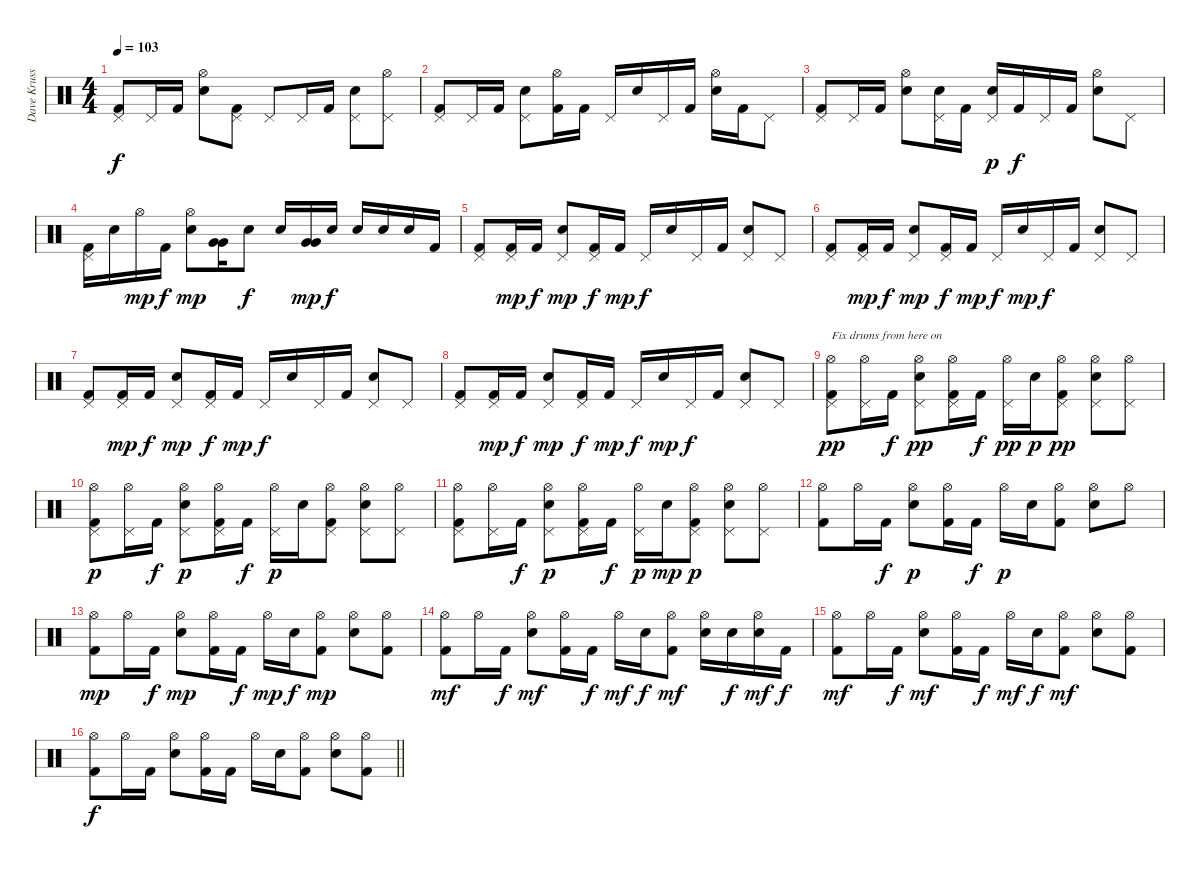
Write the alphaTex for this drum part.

\track ("Dave Krussen" "Dave Kruss") {instrument percussion}
\staff {score}
\articulation defaults
\ts (4 4)
\tempo 103
\clef neutral
\ks c
("Pedal Hi-Hat (hit)" "Kick (hit) 2").8{dy f} "Pedal Hi-Hat (hit)".16 "Kick (hit) 2".16 ("Hi-Hat (open)" "Electric Snare (hit)").8 ("Pedal Hi-Hat (hit)" "Kick (hit) 2").8 "Pedal Hi-Hat (hit)".8 "Pedal Hi-Hat (hit)".16 "Kick (hit) 2".16 ("Pedal Hi-Hat (hit)" "Electric Snare (hit)").8 ("Pedal Hi-Hat (hit)" "Hi-Hat (open)").8 |
("Pedal Hi-Hat (hit)" "Kick (hit) 2").8 "Pedal Hi-Hat (hit)".16 "Kick (hit) 2".16 ("Pedal Hi-Hat (hit)" "Electric Snare (hit)").8 ("Hi-Hat (open)" "Kick (hit) 2").16 "Kick (hit) 2".16 "Pedal Hi-Hat (hit)".16 "Electric Snare (hit)".16 "Pedal Hi-Hat (hit)".16 "Kick (hit) 2".16 ("Hi-Hat (open)" "Electric Snare (hit)").16 "Kick (hit) 2".16 "Pedal Hi-Hat (hit)".8 |
("Pedal Hi-Hat (hit)" "Kick (hit) 2").8 "Pedal Hi-Hat (hit)".16 "Kick (hit) 2".16 ("Hi-Hat (open)" "Electric Snare (hit)").8 ("Pedal Hi-Hat (hit)" "Electric Snare (hit)").16 "Kick (hit) 2".16 ("Pedal Hi-Hat (hit)" "Snare (hit) 2").16{dy p} "Kick (hit) 2".16{dy f} "Pedal Hi-Hat (hit)".16 "Kick (hit) 2".16 ("Hi-Hat (open)" "Electric Snare (hit)").8 "Pedal Hi-Hat (hit)".8 |
("Pedal Hi-Hat (hit)" "Kick (hit) 2").16 "Electric Snare (hit)".16 "Hi-Hat (open)".16{dy mp} "Kick (hit) 2".16{dy f} ("Hi-Hat (open)" "Electric Snare (hit)").8{dy mp} ("Very Low Tom (hit)" "Very Low Tom (hit)").16 "Electric Snare (hit)".8{dy f} "Electric Snare (hit)".16 ("Very Low Tom (hit)" "Very Low Tom (hit)").16{dy mp} "Electric Snare (hit)".16{dy f} "Electric Snare (hit)".16 "Electric Snare (hit)".16 "Electric Snare (hit)".16 "Kick (hit) 2".16 |
("Pedal Hi-Hat (hit)" "Kick (hit) 2").8 ("Pedal Hi-Hat (hit)" "Kick (hit) 2").16{dy mp} "Kick (hit) 2".16{dy f} ("Pedal Hi-Hat (hit)" "Electric Snare (hit)").8{dy mp} ("Pedal Hi-Hat (hit)" "Kick (hit) 2").16{dy f} "Kick (hit) 2".16{dy mp} "Pedal Hi-Hat (hit)".16{dy f} "Electric Snare (hit)".16 "Pedal Hi-Hat (hit)".16 "Kick (hit) 2".16 ("Pedal Hi-Hat (hit)" "Electric Snare (hit)").8 "Pedal Hi-Hat (hit)".8 |
("Pedal Hi-Hat (hit)" "Kick (hit) 2").8 ("Pedal Hi-Hat (hit)" "Kick (hit) 2").16{dy mp} "Kick (hit) 2".16{dy f} ("Pedal Hi-Hat (hit)" "Electric Snare (hit)").8{dy mp} ("Pedal Hi-Hat (hit)" "Kick (hit) 2").16{dy f} "Kick (hit) 2".16{dy mp} "Pedal Hi-Hat (hit)".16{dy f} "Snare (hit) 2".16{dy mp} "Pedal Hi-Hat (hit)".16{dy f} "Kick (hit) 2".16 ("Pedal Hi-Hat (hit)" "Electric Snare (hit)").8 "Pedal Hi-Hat (hit)".8 |
("Pedal Hi-Hat (hit)" "Kick (hit) 2").8 ("Pedal Hi-Hat (hit)" "Kick (hit) 2").16{dy mp} "Kick (hit) 2".16{dy f} ("Pedal Hi-Hat (hit)" "Electric Snare (hit)").8{dy mp} ("Pedal Hi-Hat (hit)" "Kick (hit) 2").16{dy f} "Kick (hit) 2".16{dy mp} "Pedal Hi-Hat (hit)".16{dy f} "Electric Snare (hit)".16 "Pedal Hi-Hat (hit)".16 "Kick (hit) 2".16 ("Pedal Hi-Hat (hit)" "Electric Snare (hit)").8 "Pedal Hi-Hat (hit)".8 |
("Pedal Hi-Hat (hit)" "Kick (hit) 2").8 ("Pedal Hi-Hat (hit)" "Kick (hit) 2").16{dy mp} "Kick (hit) 2".16{dy f} ("Pedal Hi-Hat (hit)" "Electric Snare (hit)").8{dy mp} ("Pedal Hi-Hat (hit)" "Kick (hit) 2").16{dy f} "Kick (hit) 2".16{dy mp} "Pedal Hi-Hat (hit)".16{dy f} "Snare (hit) 2".16{dy mp} "Pedal Hi-Hat (hit)".16{dy f} "Kick (hit) 2".16 ("Pedal Hi-Hat (hit)" "Electric Snare (hit)").8 "Pedal Hi-Hat (hit)".8 |
("Pedal Hi-Hat (hit)" "Hi-Hat (open)" "Kick (hit) 2").8{txt "Fix drums from here on" dy pp} ("Pedal Hi-Hat (hit)" "Hi-Hat (open)").16 "Kick (hit) 2".16{dy f} ("Pedal Hi-Hat (hit)" "Hi-Hat (open)" "Electric Snare (hit)").8{dy pp} ("Pedal Hi-Hat (hit)" "Hi-Hat (open)" "Kick (hit) 2").16 "Kick (hit) 2".16{dy f} ("Pedal Hi-Hat (hit)" "Hi-Hat (open)").16{dy pp} "Electric Snare (hit)".16{dy p} ("Pedal Hi-Hat (hit)" "Hi-Hat (open)" "Kick (hit) 2").8{dy pp} ("Pedal Hi-Hat (hit)" "Hi-Hat (open)" "Electric Snare (hit)").8 ("Pedal Hi-Hat (hit)" "Hi-Hat (open)").8 |
("Pedal Hi-Hat (hit)" "Hi-Hat (open)" "Kick (hit) 2").8{dy p} ("Pedal Hi-Hat (hit)" "Hi-Hat (open)").16 "Kick (hit) 2".16{dy f} ("Pedal Hi-Hat (hit)" "Hi-Hat (open)" "Electric Snare (hit)").8{dy p} ("Pedal Hi-Hat (hit)" "Hi-Hat (open)" "Kick (hit) 2").16 "Kick (hit) 2".16{dy f} ("Pedal Hi-Hat (hit)" "Hi-Hat (open)").16{dy p} "Electric Snare (hit)".16 ("Pedal Hi-Hat (hit)" "Hi-Hat (open)" "Kick (hit) 2").8 ("Pedal Hi-Hat (hit)" "Hi-Hat (open)" "Electric Snare (hit)").8 ("Pedal Hi-Hat (hit)" "Hi-Hat (open)").8 |
("Pedal Hi-Hat (hit)" "Hi-Hat (open)" "Kick (hit) 2").8 ("Pedal Hi-Hat (hit)" "Hi-Hat (open)").16 "Kick (hit) 2".16{dy f} ("Pedal Hi-Hat (hit)" "Hi-Hat (open)" "Electric Snare (hit)").8{dy p} ("Pedal Hi-Hat (hit)" "Hi-Hat (open)" "Kick (hit) 2").16 "Kick (hit) 2".16{dy f} ("Pedal Hi-Hat (hit)" "Hi-Hat (open)").16{dy p} "Electric Snare (hit)".16{dy mp} ("Pedal Hi-Hat (hit)" "Hi-Hat (open)" "Kick (hit) 2").8{dy p} ("Pedal Hi-Hat (hit)" "Hi-Hat (open)" "Electric Snare (hit)").8 ("Pedal Hi-Hat (hit)" "Hi-Hat (open)").8 |
("Hi-Hat (open)" "Kick (hit) 2").8 "Hi-Hat (open)".16 "Kick (hit) 2".16{dy f} ("Hi-Hat (open)" "Electric Snare (hit)").8{dy p} ("Hi-Hat (open)" "Kick (hit) 2").16 "Kick (hit) 2".16{dy f} "Hi-Hat (open)".16{dy p} "Electric Snare (hit)".16 ("Hi-Hat (open)" "Kick (hit) 2").8 ("Hi-Hat (open)" "Electric Snare (hit)").8 "Hi-Hat (open)".8 |
("Hi-Hat (open)" "Kick (hit) 2").8{dy mp} "Hi-Hat (open)".16 "Kick (hit) 2".16{dy f} ("Hi-Hat (open)" "Electric Snare (hit)").8{dy mp} ("Hi-Hat (open)" "Kick (hit) 2").16 "Kick (hit) 2".16{dy f} "Hi-Hat (open)".16{dy mp} "Electric Snare (hit)".16{dy f} ("Hi-Hat (open)" "Kick (hit) 2").8{dy mp} ("Hi-Hat (open)" "Electric Snare (hit)").8 ("Hi-Hat (open)" "Kick (hit) 2").8 |
("Hi-Hat (open)" "Kick (hit) 2").8{dy mf} "Hi-Hat (open)".16 "Kick (hit) 2".16{dy f} ("Hi-Hat (open)" "Electric Snare (hit)").8{dy mf} ("Hi-Hat (open)" "Kick (hit) 2").16 "Kick (hit) 2".16{dy f} "Hi-Hat (open)".16{dy mf} "Electric Snare (hit)".16{dy f} ("Hi-Hat (open)" "Kick (hit) 2").8{dy mf} ("Hi-Hat (open)" "Electric Snare (hit)").16 "Electric Snare (hit)".16{dy f} ("Hi-Hat (open)" "Electric Snare (hit)").16{dy mf} "Kick (hit) 2".16{dy f} |
("Hi-Hat (open)" "Kick (hit) 2").8{dy mf} "Hi-Hat (open)".16 "Kick (hit) 2".16{dy f} ("Hi-Hat (open)" "Electric Snare (hit)").8{dy mf} ("Hi-Hat (open)" "Kick (hit) 2").16 "Kick (hit) 2".16{dy f} "Hi-Hat (open)".16{dy mf} "Electric Snare (hit)".16{dy f} ("Hi-Hat (open)" "Kick (hit) 2").8{dy mf} ("Hi-Hat (open)" "Electric Snare (hit)").8 ("Hi-Hat (open)" "Kick (hit) 2").8 |
\barLineRight lightlight
("Hi-Hat (open)" "Kick (hit) 2").8{dy f} "Hi-Hat (open)".16 "Kick (hit) 2".16 ("Hi-Hat (open)" "Electric Snare (hit)").8 ("Hi-Hat (open)" "Kick (hit) 2").16 "Kick (hit) 2".16 "Hi-Hat (open)".16 "Electric Snare (hit)".16 ("Hi-Hat (open)" "Kick (hit) 2").8 ("Hi-Hat (open)" "Electric Snare (hit)").8 ("Hi-Hat (open)" "Kick (hit) 2").8
